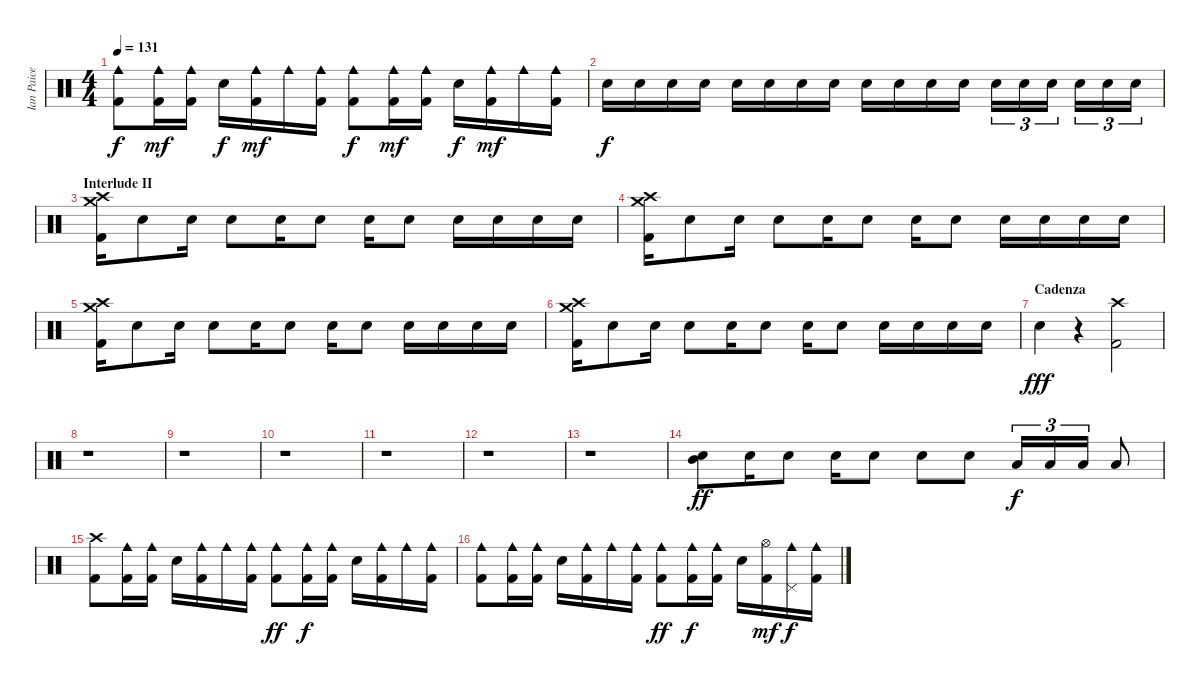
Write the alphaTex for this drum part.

\track ("Ian Paice" "Ian Paice") {instrument percussion}
\staff {score}
\articulation defaults
\ts (4 4)
\tempo 131
\clef neutral
\ks c
("Cowbell medium (hit)" "Kick (hit) 2").8{dy f} ("Cowbell medium (hit)" "Kick (hit) 2").16{dy mf} ("Cowbell medium (hit)" "Kick (hit) 2").16 "Snare (hit) 2".16{dy f} ("Cowbell medium (hit)" "Kick (hit) 2").16{dy mf} "Cowbell medium (hit)".16 ("Cowbell medium (hit)" "Kick (hit) 2").16 ("Cowbell medium (hit)" "Kick (hit) 2").8{dy f} ("Cowbell medium (hit)" "Kick (hit) 2").16{dy mf} ("Cowbell medium (hit)" "Kick (hit) 2").16 "Snare (hit) 2".16{dy f} ("Cowbell medium (hit)" "Kick (hit) 2").16{dy mf} "Cowbell medium (hit)".16 ("Cowbell medium (hit)" "Kick (hit) 2").16 |
"Snare (hit) 2".16{dy f} "Snare (hit) 2".16 "Snare (hit) 2".16 "Snare (hit) 2".16 "Snare (hit) 2".16 "Snare (hit) 2".16 "Snare (hit) 2".16 "Snare (hit) 2".16 "Snare (hit) 2".16 "Snare (hit) 2".16 "Snare (hit) 2".16 "Snare (hit) 2".16 "Snare (hit) 2".16{tu (3 2)} "Snare (hit) 2".16{tu (3 2)} "Snare (hit) 2".16{tu (3 2)} "Snare (hit) 2".16{tu (3 2)} "Snare (hit) 2".16{tu (3 2)} "Snare (hit) 2".16{tu (3 2)} |
\section ("" "Interlude II")
("Crash high (hit)" "Crash medium (hit)" "Kick (hit) 2").16 "Electric Snare (hit)".8 "Electric Snare (hit)".16 "Electric Snare (hit)".8 "Electric Snare (hit)".16 "Electric Snare (hit)".8 "Electric Snare (hit)".16 "Electric Snare (hit)".8 "Electric Snare (hit)".16 "Electric Snare (hit)".16 "Electric Snare (hit)".16 "Electric Snare (hit)".16 |
("Crash high (hit)" "Crash medium (hit)" "Kick (hit) 2").16 "Electric Snare (hit)".8 "Electric Snare (hit)".16 "Electric Snare (hit)".8 "Electric Snare (hit)".16 "Electric Snare (hit)".8 "Electric Snare (hit)".16 "Electric Snare (hit)".8 "Electric Snare (hit)".16 "Electric Snare (hit)".16 "Electric Snare (hit)".16 "Electric Snare (hit)".16 |
("Crash high (hit)" "Crash medium (hit)" "Kick (hit) 2").16 "Electric Snare (hit)".8 "Electric Snare (hit)".16 "Electric Snare (hit)".8 "Electric Snare (hit)".16 "Electric Snare (hit)".8 "Electric Snare (hit)".16 "Electric Snare (hit)".8 "Electric Snare (hit)".16 "Electric Snare (hit)".16 "Electric Snare (hit)".16 "Electric Snare (hit)".16 |
("Crash high (hit)" "Crash medium (hit)" "Kick (hit) 2").16 "Electric Snare (hit)".8 "Electric Snare (hit)".16 "Electric Snare (hit)".8 "Electric Snare (hit)".16 "Electric Snare (hit)".8 "Electric Snare (hit)".16 "Electric Snare (hit)".8 "Electric Snare (hit)".16 "Electric Snare (hit)".16 "Electric Snare (hit)".16 "Electric Snare (hit)".16 |
\section ("" "Cadenza")
"Snare (hit) 2".4{dy fff} r.4 ("Crash high (hit)" "Kick (hit) 2").2 |
r.1 |
r.1 |
r.1 |
r.1 |
r.1 |
r.1 |
("Mid Tom (hit)" "Electric Snare (hit)").8{dy ff} "Snare (hit) 2".16 "Snare (hit) 2".8 "Snare (hit) 2".16 "Snare (hit) 2".8 "Snare (hit) 2".8 "Snare (hit) 2".8 "Low Tom (hit)".16{tu (3 2) dy f} "Low Tom (hit)".16{tu (3 2)} "Low Floor Tom (hit)".16{tu (3 2)} "Low Floor Tom (hit)".8 |
("Crash high (hit)" "Kick (hit) 2").8 ("Cowbell medium (hit)" "Kick (hit) 2").16 ("Cowbell medium (hit)" "Kick (hit) 2").16 "Snare (hit) 2".16 ("Cowbell medium (hit)" "Kick (hit) 2").16 "Cowbell medium (hit)".16 ("Cowbell medium (hit)" "Kick (hit) 2").16 ("Cowbell medium (hit)" "Kick (hit) 2").8{dy ff} ("Cowbell medium (hit)" "Kick (hit) 2").16{dy f} ("Cowbell medium (hit)" "Kick (hit) 2").16 "Snare (hit) 2".16 ("Cowbell medium (hit)" "Kick (hit) 2").16 "Cowbell medium (hit)".16 ("Cowbell medium (hit)" "Kick (hit) 2").16 |
("Cowbell medium (hit)" "Kick (hit) 2").8 ("Cowbell medium (hit)" "Kick (hit) 2").16 ("Cowbell medium (hit)" "Kick (hit) 2").16 "Snare (hit) 2".16 ("Cowbell medium (hit)" "Kick (hit) 2").16 "Cowbell medium (hit)".16 ("Cowbell medium (hit)" "Kick (hit) 2").16 ("Cowbell medium (hit)" "Kick (hit) 2").8{dy ff} ("Cowbell medium (hit)" "Kick (hit) 2").16{dy f} ("Cowbell medium (hit)" "Kick (hit) 2").16 "Snare (hit) 2".16 ("Hi-Hat (open)" "Kick (hit) 2").16{dy mf} ("Pedal Hi-Hat (hit)" "Cowbell medium (hit)").16{dy f} ("Cowbell medium (hit)" "Kick (hit) 2").16
